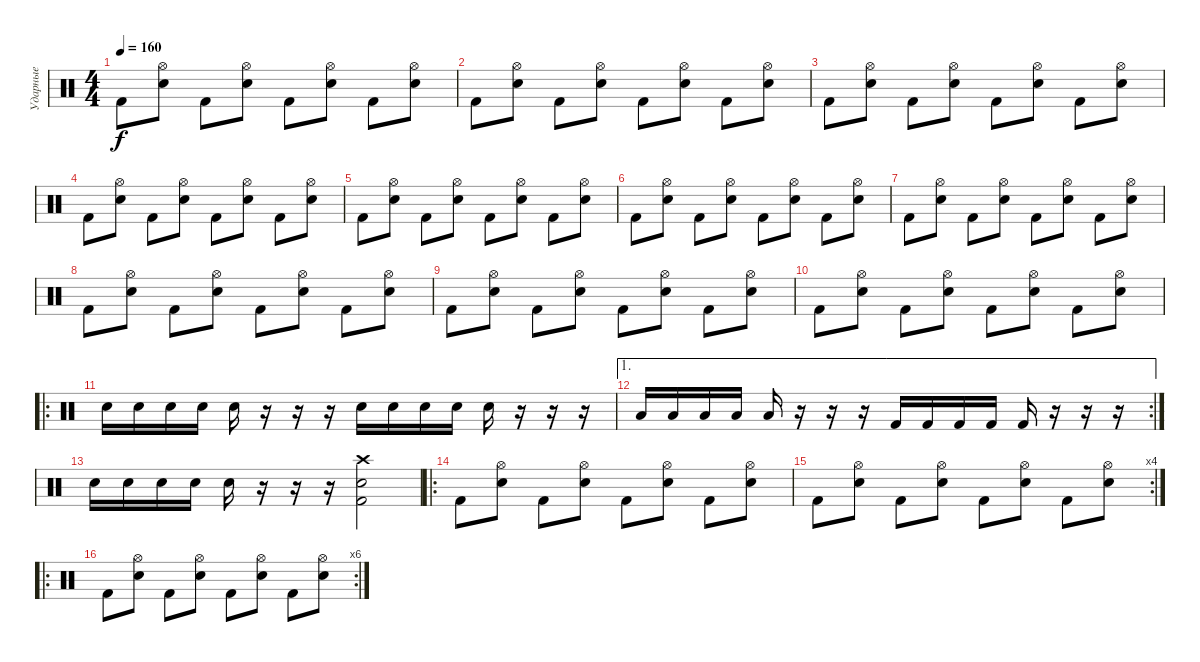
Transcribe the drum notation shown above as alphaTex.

\track ("Ударные" "Ударные") {instrument percussion}
\staff {score}
\articulation defaults
\ts (4 4)
\tempo 160
\clef neutral
\ks c "Kick (hit) 2".8{dy f}
("Hi-Hat (open)" "Snare (hit) 2").8 "Kick (hit) 2".8 ("Hi-Hat (open)" "Snare (hit) 2").8 "Kick (hit) 2".8 ("Hi-Hat (open)" "Snare (hit) 2").8 "Kick (hit) 2".8 ("Hi-Hat (open)" "Snare (hit) 2").8 |
"Kick (hit) 2".8 ("Hi-Hat (open)" "Snare (hit) 2").8 "Kick (hit) 2".8 ("Hi-Hat (open)" "Snare (hit) 2").8 "Kick (hit) 2".8 ("Hi-Hat (open)" "Snare (hit) 2").8 "Kick (hit) 2".8 ("Hi-Hat (open)" "Snare (hit) 2").8 |
"Kick (hit) 2".8 ("Hi-Hat (open)" "Snare (hit) 2").8 "Kick (hit) 2".8 ("Hi-Hat (open)" "Snare (hit) 2").8 "Kick (hit) 2".8 ("Hi-Hat (open)" "Snare (hit) 2").8 "Kick (hit) 2".8 ("Hi-Hat (open)" "Snare (hit) 2").8 |
"Kick (hit) 2".8 ("Hi-Hat (open)" "Snare (hit) 2").8 "Kick (hit) 2".8 ("Hi-Hat (open)" "Snare (hit) 2").8 "Kick (hit) 2".8 ("Hi-Hat (open)" "Snare (hit) 2").8 "Kick (hit) 2".8 ("Hi-Hat (open)" "Snare (hit) 2").8 |
"Kick (hit) 2".8 ("Hi-Hat (open)" "Snare (hit) 2").8 "Kick (hit) 2".8 ("Hi-Hat (open)" "Snare (hit) 2").8 "Kick (hit) 2".8 ("Hi-Hat (open)" "Snare (hit) 2").8 "Kick (hit) 2".8 ("Hi-Hat (open)" "Snare (hit) 2").8 |
"Kick (hit) 2".8 ("Hi-Hat (open)" "Snare (hit) 2").8 "Kick (hit) 2".8 ("Hi-Hat (open)" "Snare (hit) 2").8 "Kick (hit) 2".8 ("Hi-Hat (open)" "Snare (hit) 2").8 "Kick (hit) 2".8 ("Hi-Hat (open)" "Snare (hit) 2").8 |
"Kick (hit) 2".8 ("Hi-Hat (open)" "Snare (hit) 2").8 "Kick (hit) 2".8 ("Hi-Hat (open)" "Snare (hit) 2").8 "Kick (hit) 2".8 ("Hi-Hat (open)" "Snare (hit) 2").8 "Kick (hit) 2".8 ("Hi-Hat (open)" "Snare (hit) 2").8 |
"Kick (hit) 2".8 ("Hi-Hat (open)" "Snare (hit) 2").8 "Kick (hit) 2".8 ("Hi-Hat (open)" "Snare (hit) 2").8 "Kick (hit) 2".8 ("Hi-Hat (open)" "Snare (hit) 2").8 "Kick (hit) 2".8 ("Hi-Hat (open)" "Snare (hit) 2").8 |
"Kick (hit) 2".8 ("Hi-Hat (open)" "Snare (hit) 2").8 "Kick (hit) 2".8 ("Hi-Hat (open)" "Snare (hit) 2").8 "Kick (hit) 2".8 ("Hi-Hat (open)" "Snare (hit) 2").8 "Kick (hit) 2".8 ("Hi-Hat (open)" "Snare (hit) 2").8 |
"Kick (hit) 2".8 ("Hi-Hat (open)" "Snare (hit) 2").8 "Kick (hit) 2".8 ("Hi-Hat (open)" "Snare (hit) 2").8 "Kick (hit) 2".8 ("Hi-Hat (open)" "Snare (hit) 2").8 "Kick (hit) 2".8 ("Hi-Hat (open)" "Snare (hit) 2").8 |
\ro "Electric Snare (hit)".16 "Electric Snare (hit)".16 "Electric Snare (hit)".16 "Electric Snare (hit)".16 "Electric Snare (hit)".16
r.16 r.16 r.16 "Snare (hit) 2".16 "Snare (hit) 2".16 "Snare (hit) 2".16 "Snare (hit) 2".16 "Snare (hit) 2".16 r.16 r.16 r.16 |
\ae 1
\rc 2 "Low Floor Tom (hit)".16 "Low Floor Tom (hit)".16 "Low Floor Tom (hit)".16 "Low Floor Tom (hit)".16 "Low Floor Tom (hit)".16
r.16 r.16 r.16 "Kick (hit) 2".16 "Kick (hit) 2".16 "Kick (hit) 2".16 "Kick (hit) 2".16 "Kick (hit) 2".16 r.16 r.16 r.16 |
"Electric Snare (hit)".16 "Electric Snare (hit)".16 "Electric Snare (hit)".16 "Electric Snare (hit)".16 "Electric Snare (hit)".16 r.16 r.16 r.16 ("Kick (hit) 2" "Crash high (hit)" "Electric Snare (hit)").2 |
\ro "Kick (hit) 2".8
("Hi-Hat (open)" "Snare (hit) 2").8 "Kick (hit) 2".8 ("Hi-Hat (open)" "Snare (hit) 2").8 "Kick (hit) 2".8 ("Hi-Hat (open)" "Snare (hit) 2").8 "Kick (hit) 2".8 ("Hi-Hat (open)" "Snare (hit) 2").8 |
\rc 4 "Kick (hit) 2".8
("Hi-Hat (open)" "Snare (hit) 2").8 "Kick (hit) 2".8 ("Hi-Hat (open)" "Snare (hit) 2").8 "Kick (hit) 2".8 ("Hi-Hat (open)" "Snare (hit) 2").8 "Kick (hit) 2".8 ("Hi-Hat (open)" "Snare (hit) 2").8 |
\ro
\rc 6 "Kick (hit) 2".8
("Hi-Hat (open)" "Snare (hit) 2").8 "Kick (hit) 2".8 ("Hi-Hat (open)" "Snare (hit) 2").8 "Kick (hit) 2".8 ("Hi-Hat (open)" "Snare (hit) 2").8 "Kick (hit) 2".8 ("Hi-Hat (open)" "Snare (hit) 2").8
